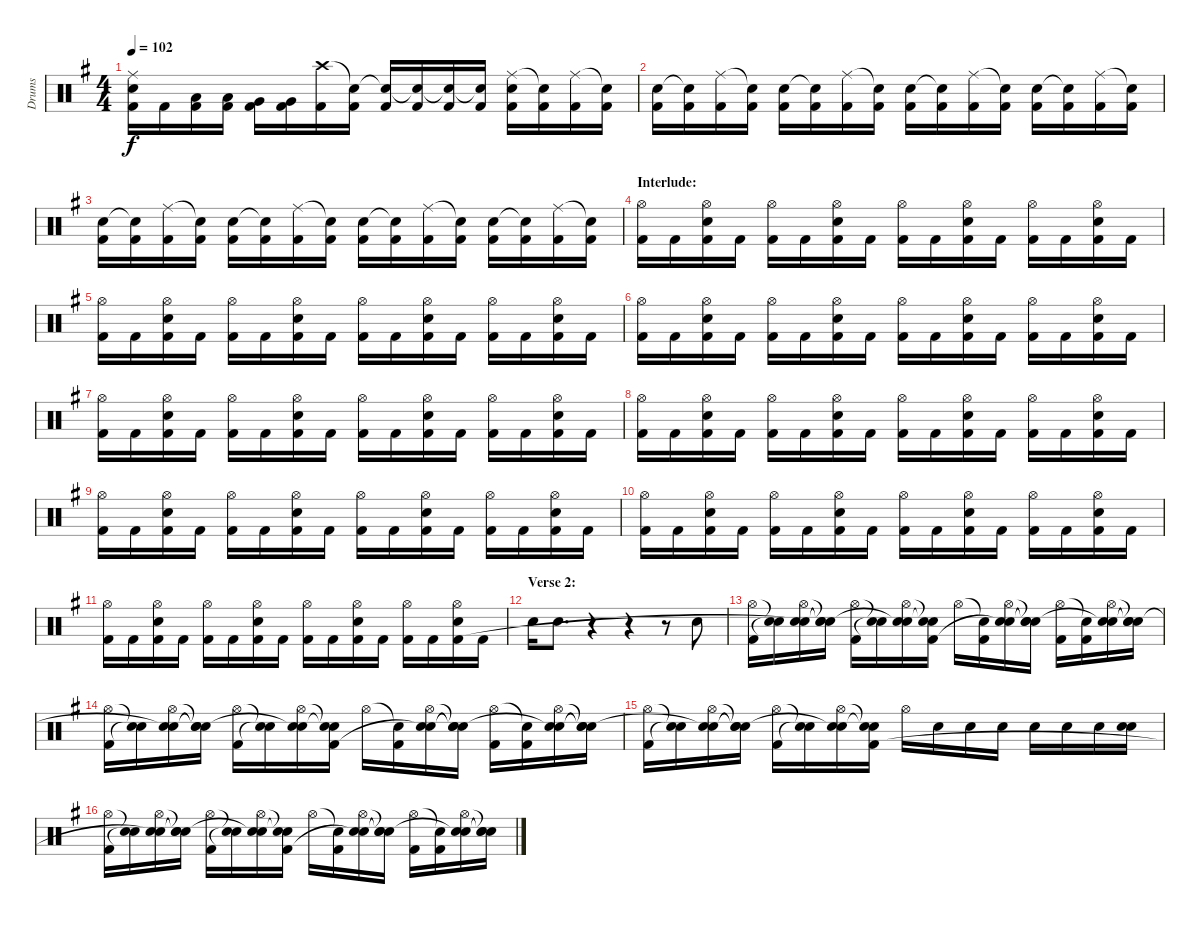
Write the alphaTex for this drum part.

\track ("Drums" "Drums") {instrument percussion}
\staff {score}
\articulation defaults
\ts (4 4)
\tempo 102
\clef neutral
\ks eminor
("Ride (middle)" "Snare (hit) 2" "Kick (hit) 2").16{dy f} "Kick (hit) 2".16 ("Low Tom (hit)" "Kick (hit) 2").16 ("Low Tom (hit)" "Kick (hit) 2").16 ("Very Low Tom (hit)" "Kick (hit) 2").16 ("Very Low Tom (hit)" "Kick (hit) 2").16 ("Crash high (hit)" "Kick (hit) 2").16 ("Snare (hit)"{t} "Kick (hit) 2").16 ("Snare (hit)"{t} "Kick (hit) 2").16 ("Snare (hit)"{t} "Kick (hit) 2").16 ("Snare (hit)"{t} "Kick (hit) 2").16 ("Snare (hit)"{t} "Kick (hit) 2").16 ("Ride (middle)" "Snare (hit) 2" "Kick (hit) 2").16 ("Snare (hit)"{t} "Kick (hit) 2").16 ("Ride (middle)" "Kick (hit) 2").16 ("Snare (hit)"{t} "Kick (hit) 2").16 |
("Snare (hit) 2" "Kick (hit) 2").16 ("Snare (hit)"{t} "Kick (hit) 2").16 ("Ride (middle)" "Kick (hit) 2").16 ("Snare (hit)"{t} "Kick (hit) 2").16 ("Snare (hit) 2" "Kick (hit) 2").16 ("Snare (hit)"{t} "Kick (hit) 2").16 ("Ride (middle)" "Kick (hit) 2").16 ("Snare (hit)"{t} "Kick (hit) 2").16 ("Snare (hit) 2" "Kick (hit) 2").16 ("Snare (hit)"{t} "Kick (hit) 2").16 ("Ride (middle)" "Kick (hit) 2").16 ("Snare (hit)"{t} "Kick (hit) 2").16 ("Snare (hit) 2" "Kick (hit) 2").16 ("Snare (hit)"{t} "Kick (hit) 2").16 ("Ride (middle)" "Kick (hit) 2").16 ("Snare (hit)"{t} "Kick (hit) 2").16 |
("Snare (hit) 2" "Kick (hit) 2").16 ("Snare (hit)"{t} "Kick (hit) 2").16 ("Ride (middle)" "Kick (hit) 2").16 ("Snare (hit)"{t} "Kick (hit) 2").16 ("Snare (hit) 2" "Kick (hit) 2").16 ("Snare (hit)"{t} "Kick (hit) 2").16 ("Ride (middle)" "Kick (hit) 2").16 ("Snare (hit)"{t} "Kick (hit) 2").16 ("Snare (hit) 2" "Kick (hit) 2").16 ("Snare (hit)"{t} "Kick (hit) 2").16 ("Ride (middle)" "Kick (hit) 2").16 ("Snare (hit)"{t} "Kick (hit) 2").16 ("Snare (hit) 2" "Kick (hit) 2").16 ("Snare (hit)"{t} "Kick (hit) 2").16 ("Ride (middle)" "Kick (hit) 2").16 ("Snare (hit)"{t} "Kick (hit) 2").16 |
\section ("" "Interlude:")
("Hi-Hat (open)" "Kick (hit) 2").16 "Kick (hit) 2".16 ("Hi-Hat (open)" "Snare (hit) 2" "Kick (hit) 2").16 "Kick (hit) 2".16 ("Hi-Hat (open)" "Kick (hit) 2").16 "Kick (hit) 2".16 ("Hi-Hat (open)" "Snare (hit) 2" "Kick (hit) 2").16 "Kick (hit) 2".16 ("Hi-Hat (open)" "Kick (hit) 2").16 "Kick (hit) 2".16 ("Hi-Hat (open)" "Snare (hit) 2" "Kick (hit) 2").16 "Kick (hit) 2".16 ("Hi-Hat (open)" "Kick (hit) 2").16 "Kick (hit) 2".16 ("Hi-Hat (open)" "Snare (hit) 2" "Kick (hit) 2").16 "Kick (hit) 2".16 |
("Hi-Hat (open)" "Kick (hit) 2").16 "Kick (hit) 2".16 ("Hi-Hat (open)" "Snare (hit) 2" "Kick (hit) 2").16 "Kick (hit) 2".16 ("Hi-Hat (open)" "Kick (hit) 2").16 "Kick (hit) 2".16 ("Hi-Hat (open)" "Snare (hit) 2" "Kick (hit) 2").16 "Kick (hit) 2".16 ("Hi-Hat (open)" "Kick (hit) 2").16 "Kick (hit) 2".16 ("Hi-Hat (open)" "Snare (hit) 2" "Kick (hit) 2").16 "Kick (hit) 2".16 ("Hi-Hat (open)" "Kick (hit) 2").16 "Kick (hit) 2".16 ("Hi-Hat (open)" "Snare (hit) 2" "Kick (hit) 2").16 "Kick (hit) 2".16 |
("Hi-Hat (open)" "Kick (hit) 2").16 "Kick (hit) 2".16 ("Hi-Hat (open)" "Snare (hit) 2" "Kick (hit) 2").16 "Kick (hit) 2".16 ("Hi-Hat (open)" "Kick (hit) 2").16 "Kick (hit) 2".16 ("Hi-Hat (open)" "Snare (hit) 2" "Kick (hit) 2").16 "Kick (hit) 2".16 ("Hi-Hat (open)" "Kick (hit) 2").16 "Kick (hit) 2".16 ("Hi-Hat (open)" "Snare (hit) 2" "Kick (hit) 2").16 "Kick (hit) 2".16 ("Hi-Hat (open)" "Kick (hit) 2").16 "Kick (hit) 2".16 ("Hi-Hat (open)" "Snare (hit) 2" "Kick (hit) 2").16 "Kick (hit) 2".16 |
("Hi-Hat (open)" "Kick (hit) 2").16 "Kick (hit) 2".16 ("Hi-Hat (open)" "Snare (hit) 2" "Kick (hit) 2").16 "Kick (hit) 2".16 ("Hi-Hat (open)" "Kick (hit) 2").16 "Kick (hit) 2".16 ("Hi-Hat (open)" "Snare (hit) 2" "Kick (hit) 2").16 "Kick (hit) 2".16 ("Hi-Hat (open)" "Kick (hit) 2").16 "Kick (hit) 2".16 ("Hi-Hat (open)" "Snare (hit) 2" "Kick (hit) 2").16 "Kick (hit) 2".16 ("Hi-Hat (open)" "Kick (hit) 2").16 "Kick (hit) 2".16 ("Hi-Hat (open)" "Snare (hit) 2" "Kick (hit) 2").16 "Kick (hit) 2".16 |
("Hi-Hat (open)" "Kick (hit) 2").16 "Kick (hit) 2".16 ("Hi-Hat (open)" "Snare (hit) 2" "Kick (hit) 2").16 "Kick (hit) 2".16 ("Hi-Hat (open)" "Kick (hit) 2").16 "Kick (hit) 2".16 ("Hi-Hat (open)" "Snare (hit) 2" "Kick (hit) 2").16 "Kick (hit) 2".16 ("Hi-Hat (open)" "Kick (hit) 2").16 "Kick (hit) 2".16 ("Hi-Hat (open)" "Snare (hit) 2" "Kick (hit) 2").16 "Kick (hit) 2".16 ("Hi-Hat (open)" "Kick (hit) 2").16 "Kick (hit) 2".16 ("Hi-Hat (open)" "Snare (hit) 2" "Kick (hit) 2").16 "Kick (hit) 2".16 |
("Hi-Hat (open)" "Kick (hit) 2").16 "Kick (hit) 2".16 ("Hi-Hat (open)" "Snare (hit) 2" "Kick (hit) 2").16 "Kick (hit) 2".16 ("Hi-Hat (open)" "Kick (hit) 2").16 "Kick (hit) 2".16 ("Hi-Hat (open)" "Snare (hit) 2" "Kick (hit) 2").16 "Kick (hit) 2".16 ("Hi-Hat (open)" "Kick (hit) 2").16 "Kick (hit) 2".16 ("Hi-Hat (open)" "Snare (hit) 2" "Kick (hit) 2").16 "Kick (hit) 2".16 ("Hi-Hat (open)" "Kick (hit) 2").16 "Kick (hit) 2".16 ("Hi-Hat (open)" "Snare (hit) 2" "Kick (hit) 2").16 "Kick (hit) 2".16 |
("Hi-Hat (open)" "Kick (hit) 2").16 "Kick (hit) 2".16 ("Hi-Hat (open)" "Snare (hit) 2" "Kick (hit) 2").16 "Kick (hit) 2".16 ("Hi-Hat (open)" "Kick (hit) 2").16 "Kick (hit) 2".16 ("Hi-Hat (open)" "Snare (hit) 2" "Kick (hit) 2").16 "Kick (hit) 2".16 ("Hi-Hat (open)" "Kick (hit) 2").16 "Kick (hit) 2".16 ("Hi-Hat (open)" "Snare (hit) 2" "Kick (hit) 2").16 "Kick (hit) 2".16 ("Hi-Hat (open)" "Kick (hit) 2").16 "Kick (hit) 2".16 ("Hi-Hat (open)" "Snare (hit) 2" "Kick (hit) 2").16 "Kick (hit) 2".16 |
("Hi-Hat (open)" "Kick (hit) 2").16 "Kick (hit) 2".16 ("Hi-Hat (open)" "Snare (hit) 2" "Kick (hit) 2").16 "Kick (hit) 2".16 ("Hi-Hat (open)" "Kick (hit) 2").16 "Kick (hit) 2".16 ("Hi-Hat (open)" "Snare (hit) 2" "Kick (hit) 2").16 "Kick (hit) 2".16 ("Hi-Hat (open)" "Kick (hit) 2").16 "Kick (hit) 2".16 ("Hi-Hat (open)" "Snare (hit) 2" "Kick (hit) 2").16 "Kick (hit) 2".16 ("Hi-Hat (open)" "Kick (hit) 2").16 "Kick (hit) 2".16 ("Hi-Hat (open)" "Snare (hit) 2" "Kick (hit) 2").16 "Kick (hit) 2".16 |
\section ("" "Verse 2:")
"Snare (hit) 2".16 "Snare (hit) 2".8{d} r.4 r.4 r.8 "Snare (hit) 2".8 |
("Hi-Hat (open)" "Kick (hit) 2").16 ("Snare (hit)"{t} "Snare (hit)"{t}).16 ("Hi-Hat (open)" "Snare (hit) 2" "Snare (hit)"{t}).16 ("Snare (hit)"{t} "Snare (hit)"{t} "Snare (hit)"{t}).16 ("Hi-Hat (open)" "Kick (hit) 2").16 ("Snare (hit)"{t} "Snare (hit)"{t}).16 ("Hi-Hat (open)" "Snare (hit) 2" "Snare (hit)"{t}).16 ("Snare (hit)"{t} "Snare (hit)"{t} "Kick (hit) 2").16 "Hi-Hat (open)".16 ("Snare (hit)"{t} "Kick (hit) 2").16 ("Hi-Hat (open)" "Snare (hit) 2" "Snare (hit)"{t}).16 ("Snare (hit)"{t} "Snare (hit)"{t} "Snare (hit)"{t}).16 ("Hi-Hat (open)" "Kick (hit) 2").16 ("Snare (hit)"{t} "Kick (hit) 2").16 ("Hi-Hat (open)" "Snare (hit) 2" "Snare (hit)"{t}).16 ("Snare (hit)"{t} "Snare (hit)"{t} "Snare (hit)"{t}).16 |
("Hi-Hat (open)" "Kick (hit) 2").16 ("Snare (hit)"{t} "Snare (hit)"{t}).16 ("Hi-Hat (open)" "Snare (hit) 2" "Snare (hit)"{t}).16 ("Snare (hit)"{t} "Snare (hit)"{t} "Snare (hit)"{t}).16 ("Hi-Hat (open)" "Kick (hit) 2").16 ("Snare (hit)"{t} "Snare (hit)"{t}).16 ("Hi-Hat (open)" "Snare (hit) 2" "Snare (hit)"{t}).16 ("Snare (hit)"{t} "Snare (hit)"{t} "Kick (hit) 2").16 "Hi-Hat (open)".16 ("Snare (hit)"{t} "Kick (hit) 2").16 ("Hi-Hat (open)" "Snare (hit) 2" "Snare (hit)"{t}).16 ("Snare (hit)"{t} "Snare (hit)"{t} "Snare (hit)"{t}).16 ("Hi-Hat (open)" "Kick (hit) 2").16 ("Snare (hit)"{t} "Kick (hit) 2").16 ("Hi-Hat (open)" "Snare (hit) 2" "Snare (hit)"{t}).16 ("Snare (hit)"{t} "Snare (hit)"{t} "Snare (hit)"{t}).16 |
("Hi-Hat (open)" "Kick (hit) 2").16 ("Snare (hit)"{t} "Snare (hit)"{t}).16 ("Hi-Hat (open)" "Snare (hit) 2" "Snare (hit)"{t}).16 ("Snare (hit)"{t} "Snare (hit)"{t} "Snare (hit)"{t}).16 ("Hi-Hat (open)" "Kick (hit) 2").16 ("Snare (hit)"{t} "Snare (hit)"{t}).16 ("Hi-Hat (open)" "Snare (hit) 2" "Snare (hit)"{t}).16 ("Snare (hit)"{t} "Snare (hit)"{t} "Kick (hit) 2").16 "Hi-Hat (open)".16 "Snare (hit) 2".16 "Snare (hit) 2".16 "Snare (hit) 2".16 "Snare (hit) 2".16 "Snare (hit) 2".16 "Snare (hit) 2".16 ("Snare (hit) 2" "Snare (hit) 2").16 |
("Hi-Hat (open)" "Kick (hit) 2").16 ("Snare (hit)"{t} "Snare (hit)"{t}).16 ("Hi-Hat (open)" "Snare (hit) 2" "Snare (hit)"{t}).16 ("Snare (hit)"{t} "Snare (hit)"{t} "Snare (hit)"{t}).16 ("Hi-Hat (open)" "Kick (hit) 2").16 ("Snare (hit)"{t} "Snare (hit)"{t}).16 ("Hi-Hat (open)" "Snare (hit) 2" "Snare (hit)"{t}).16 ("Snare (hit)"{t} "Snare (hit)"{t} "Kick (hit) 2").16 "Hi-Hat (open)".16 ("Snare (hit)"{t} "Kick (hit) 2").16 ("Hi-Hat (open)" "Snare (hit) 2" "Snare (hit)"{t}).16 ("Snare (hit)"{t} "Snare (hit)"{t} "Snare (hit)"{t}).16 ("Hi-Hat (open)" "Kick (hit) 2").16 ("Snare (hit)"{t} "Kick (hit) 2").16 ("Hi-Hat (open)" "Snare (hit) 2" "Snare (hit)"{t}).16 ("Snare (hit)"{t} "Snare (hit)"{t} "Snare (hit)"{t}).16
